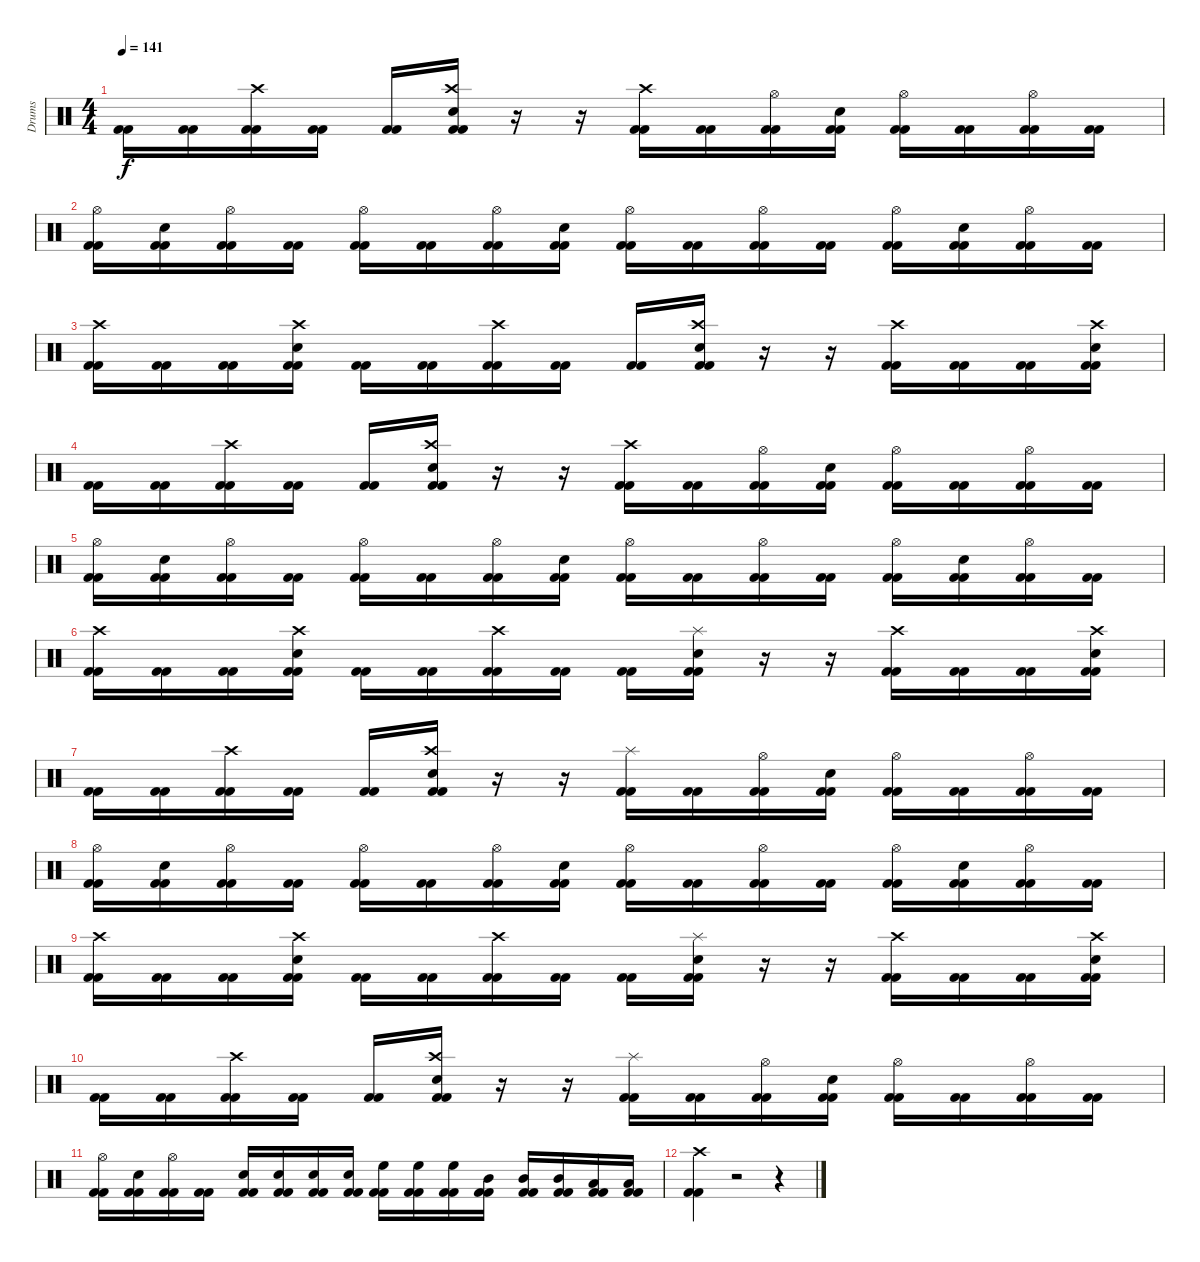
\track ("Drums" "Drums") {instrument percussion}
\staff {score}
\articulation defaults
\ts (4 4)
\tempo 141
\clef neutral
\ks c
("Kick (hit) 2" "Kick (hit) 2").16{dy f} ("Kick (hit) 2" "Kick (hit) 2").16 ("Crash high (hit)" "Kick (hit) 2" "Kick (hit) 2").16 ("Kick (hit) 2" "Kick (hit) 2").16 ("Kick (hit) 2" "Kick (hit) 2").16 ("Crash high (hit)" "Snare (hit) 2" "Kick (hit) 2" "Kick (hit) 2").16 r.16 r.16 ("Crash high (hit)" "Kick (hit) 2" "Kick (hit) 2").16 ("Kick (hit) 2" "Kick (hit) 2").16 ("Hi-Hat (open)" "Kick (hit) 2" "Kick (hit) 2").16 ("Snare (hit) 2" "Kick (hit) 2" "Kick (hit) 2").16 ("Hi-Hat (open)" "Kick (hit) 2" "Kick (hit) 2").16 ("Kick (hit) 2" "Kick (hit) 2").16 ("Hi-Hat (open)" "Kick (hit) 2" "Kick (hit) 2").16 ("Kick (hit) 2" "Kick (hit) 2").16 |
("Hi-Hat (open)" "Kick (hit) 2" "Kick (hit) 2").16 ("Snare (hit) 2" "Kick (hit) 2" "Kick (hit) 2").16 ("Hi-Hat (open)" "Kick (hit) 2" "Kick (hit) 2").16 ("Kick (hit) 2" "Kick (hit) 2").16 ("Hi-Hat (open)" "Kick (hit) 2" "Kick (hit) 2").16 ("Kick (hit) 2" "Kick (hit) 2").16 ("Hi-Hat (open)" "Kick (hit) 2" "Kick (hit) 2").16 ("Snare (hit) 2" "Kick (hit) 2" "Kick (hit) 2").16 ("Hi-Hat (open)" "Kick (hit) 2" "Kick (hit) 2").16 ("Kick (hit) 2" "Kick (hit) 2").16 ("Hi-Hat (open)" "Kick (hit) 2" "Kick (hit) 2").16 ("Kick (hit) 2" "Kick (hit) 2").16 ("Hi-Hat (open)" "Kick (hit) 2" "Kick (hit) 2").16 ("Snare (hit) 2" "Kick (hit) 2" "Kick (hit) 2").16 ("Hi-Hat (open)" "Kick (hit) 2" "Kick (hit) 2").16 ("Kick (hit) 2" "Kick (hit) 2").16 |
("Crash high (hit)" "Kick (hit) 2" "Kick (hit) 2").16 ("Kick (hit) 2" "Kick (hit) 2").16 ("Kick (hit) 2" "Kick (hit) 2").16 ("Crash high (hit)" "Snare (hit) 2" "Kick (hit) 2" "Kick (hit) 2").16 ("Kick (hit) 2" "Kick (hit) 2").16 ("Kick (hit) 2" "Kick (hit) 2").16 ("Crash high (hit)" "Kick (hit) 2" "Kick (hit) 2").16 ("Kick (hit) 2" "Kick (hit) 2").16 ("Kick (hit) 2" "Kick (hit) 2").16 ("Crash high (hit)" "Snare (hit) 2" "Kick (hit) 2" "Kick (hit) 2").16 r.16 r.16 ("Crash high (hit)" "Kick (hit) 2" "Kick (hit) 2").16 ("Kick (hit) 2" "Kick (hit) 2").16 ("Kick (hit) 2" "Kick (hit) 2").16 ("Crash high (hit)" "Snare (hit) 2" "Kick (hit) 2" "Kick (hit) 2").16 |
("Kick (hit) 2" "Kick (hit) 2").16 ("Kick (hit) 2" "Kick (hit) 2").16 ("Crash high (hit)" "Kick (hit) 2" "Kick (hit) 2").16 ("Kick (hit) 2" "Kick (hit) 2").16 ("Kick (hit) 2" "Kick (hit) 2").16 ("Crash high (hit)" "Snare (hit) 2" "Kick (hit) 2" "Kick (hit) 2").16 r.16 r.16 ("Crash high (hit)" "Kick (hit) 2" "Kick (hit) 2").16 ("Kick (hit) 2" "Kick (hit) 2").16 ("Hi-Hat (open)" "Kick (hit) 2" "Kick (hit) 2").16 ("Snare (hit) 2" "Kick (hit) 2" "Kick (hit) 2").16 ("Hi-Hat (open)" "Kick (hit) 2" "Kick (hit) 2").16 ("Kick (hit) 2" "Kick (hit) 2").16 ("Hi-Hat (open)" "Kick (hit) 2" "Kick (hit) 2").16 ("Kick (hit) 2" "Kick (hit) 2").16 |
("Hi-Hat (open)" "Kick (hit) 2" "Kick (hit) 2").16 ("Snare (hit) 2" "Kick (hit) 2" "Kick (hit) 2").16 ("Hi-Hat (open)" "Kick (hit) 2" "Kick (hit) 2").16 ("Kick (hit) 2" "Kick (hit) 2").16 ("Hi-Hat (open)" "Kick (hit) 2" "Kick (hit) 2").16 ("Kick (hit) 2" "Kick (hit) 2").16 ("Hi-Hat (open)" "Kick (hit) 2" "Kick (hit) 2").16 ("Snare (hit) 2" "Kick (hit) 2" "Kick (hit) 2").16 ("Hi-Hat (open)" "Kick (hit) 2" "Kick (hit) 2").16 ("Kick (hit) 2" "Kick (hit) 2").16 ("Hi-Hat (open)" "Kick (hit) 2" "Kick (hit) 2").16 ("Kick (hit) 2" "Kick (hit) 2").16 ("Hi-Hat (open)" "Kick (hit) 2" "Kick (hit) 2").16 ("Snare (hit) 2" "Kick (hit) 2" "Kick (hit) 2").16 ("Hi-Hat (open)" "Kick (hit) 2" "Kick (hit) 2").16 ("Kick (hit) 2" "Kick (hit) 2").16 |
("Crash high (hit)" "Kick (hit) 2" "Kick (hit) 2").16 ("Kick (hit) 2" "Kick (hit) 2").16 ("Kick (hit) 2" "Kick (hit) 2").16 ("Crash high (hit)" "Snare (hit) 2" "Kick (hit) 2" "Kick (hit) 2").16 ("Kick (hit) 2" "Kick (hit) 2").16 ("Kick (hit) 2" "Kick (hit) 2").16 ("Crash high (hit)" "Kick (hit) 2" "Kick (hit) 2").16 ("Kick (hit) 2" "Kick (hit) 2").16 ("Kick (hit) 2" "Kick (hit) 2").16 ("Splash (hit)" "Snare (hit) 2" "Kick (hit) 2" "Kick (hit) 2").16 r.16 r.16 ("Crash high (hit)" "Kick (hit) 2" "Kick (hit) 2").16 ("Kick (hit) 2" "Kick (hit) 2").16 ("Kick (hit) 2" "Kick (hit) 2").16 ("Crash high (hit)" "Snare (hit) 2" "Kick (hit) 2" "Kick (hit) 2").16 |
("Kick (hit) 2" "Kick (hit) 2").16 ("Kick (hit) 2" "Kick (hit) 2").16 ("Crash high (hit)" "Kick (hit) 2" "Kick (hit) 2").16 ("Kick (hit) 2" "Kick (hit) 2").16 ("Kick (hit) 2" "Kick (hit) 2").16 ("Crash high (hit)" "Snare (hit) 2" "Kick (hit) 2" "Kick (hit) 2").16 r.16 r.16 ("Splash (hit)" "Kick (hit) 2" "Kick (hit) 2").16 ("Kick (hit) 2" "Kick (hit) 2").16 ("Hi-Hat (open)" "Kick (hit) 2" "Kick (hit) 2").16 ("Snare (hit) 2" "Kick (hit) 2" "Kick (hit) 2").16 ("Hi-Hat (open)" "Kick (hit) 2" "Kick (hit) 2").16 ("Kick (hit) 2" "Kick (hit) 2").16 ("Hi-Hat (open)" "Kick (hit) 2" "Kick (hit) 2").16 ("Kick (hit) 2" "Kick (hit) 2").16 |
("Hi-Hat (open)" "Kick (hit) 2" "Kick (hit) 2").16 ("Snare (hit) 2" "Kick (hit) 2" "Kick (hit) 2").16 ("Hi-Hat (open)" "Kick (hit) 2" "Kick (hit) 2").16 ("Kick (hit) 2" "Kick (hit) 2").16 ("Hi-Hat (open)" "Kick (hit) 2" "Kick (hit) 2").16 ("Kick (hit) 2" "Kick (hit) 2").16 ("Hi-Hat (open)" "Kick (hit) 2" "Kick (hit) 2").16 ("Snare (hit) 2" "Kick (hit) 2" "Kick (hit) 2").16 ("Hi-Hat (open)" "Kick (hit) 2" "Kick (hit) 2").16 ("Kick (hit) 2" "Kick (hit) 2").16 ("Hi-Hat (open)" "Kick (hit) 2" "Kick (hit) 2").16 ("Kick (hit) 2" "Kick (hit) 2").16 ("Hi-Hat (open)" "Kick (hit) 2" "Kick (hit) 2").16 ("Snare (hit) 2" "Kick (hit) 2" "Kick (hit) 2").16 ("Hi-Hat (open)" "Kick (hit) 2" "Kick (hit) 2").16 ("Kick (hit) 2" "Kick (hit) 2").16 |
("Crash high (hit)" "Kick (hit) 2" "Kick (hit) 2").16 ("Kick (hit) 2" "Kick (hit) 2").16 ("Kick (hit) 2" "Kick (hit) 2").16 ("Crash high (hit)" "Snare (hit) 2" "Kick (hit) 2" "Kick (hit) 2").16 ("Kick (hit) 2" "Kick (hit) 2").16 ("Kick (hit) 2" "Kick (hit) 2").16 ("Crash high (hit)" "Kick (hit) 2" "Kick (hit) 2").16 ("Kick (hit) 2" "Kick (hit) 2").16 ("Kick (hit) 2" "Kick (hit) 2").16 ("Splash (hit)" "Snare (hit) 2" "Kick (hit) 2" "Kick (hit) 2").16 r.16 r.16 ("Crash high (hit)" "Kick (hit) 2" "Kick (hit) 2").16 ("Kick (hit) 2" "Kick (hit) 2").16 ("Kick (hit) 2" "Kick (hit) 2").16 ("Crash high (hit)" "Snare (hit) 2" "Kick (hit) 2" "Kick (hit) 2").16 |
("Kick (hit) 2" "Kick (hit) 2").16 ("Kick (hit) 2" "Kick (hit) 2").16 ("Crash high (hit)" "Kick (hit) 2" "Kick (hit) 2").16 ("Kick (hit) 2" "Kick (hit) 2").16 ("Kick (hit) 2" "Kick (hit) 2").16 ("Crash high (hit)" "Snare (hit) 2" "Kick (hit) 2" "Kick (hit) 2").16 r.16 r.16 ("Splash (hit)" "Kick (hit) 2" "Kick (hit) 2").16 ("Kick (hit) 2" "Kick (hit) 2").16 ("Hi-Hat (open)" "Kick (hit) 2" "Kick (hit) 2").16 ("Snare (hit) 2" "Kick (hit) 2" "Kick (hit) 2").16 ("Hi-Hat (open)" "Kick (hit) 2" "Kick (hit) 2").16 ("Kick (hit) 2" "Kick (hit) 2").16 ("Hi-Hat (open)" "Kick (hit) 2" "Kick (hit) 2").16 ("Kick (hit) 2" "Kick (hit) 2").16 |
("Hi-Hat (open)" "Kick (hit) 2" "Kick (hit) 2").16 ("Snare (hit) 2" "Kick (hit) 2" "Kick (hit) 2").16 ("Hi-Hat (open)" "Kick (hit) 2" "Kick (hit) 2").16 ("Kick (hit) 2" "Kick (hit) 2").16 ("Snare (hit) 2" "Kick (hit) 2" "Kick (hit) 2").16 ("Snare (hit) 2" "Kick (hit) 2" "Kick (hit) 2").16 ("Snare (hit) 2" "Kick (hit) 2" "Kick (hit) 2").16 ("Snare (hit) 2" "Kick (hit) 2" "Kick (hit) 2").16 ("High Floor Tom (hit)" "Kick (hit) 2" "Kick (hit) 2").16 ("High Floor Tom (hit)" "Kick (hit) 2" "Kick (hit) 2").16 ("High Floor Tom (hit)" "Kick (hit) 2" "Kick (hit) 2").16 ("Mid Tom (hit)" "Kick (hit) 2" "Kick (hit) 2").16 ("Mid Tom (hit)" "Kick (hit) 2" "Kick (hit) 2").16 ("Mid Tom (hit)" "Kick (hit) 2" "Kick (hit) 2").16 ("Low Tom (hit)" "Kick (hit) 2" "Kick (hit) 2").16 ("Low Tom (hit)" "Kick (hit) 2" "Kick (hit) 2").16 |
("Crash high (hit)" "Kick (hit) 2" "Kick (hit) 2").4 r.2 r.4
